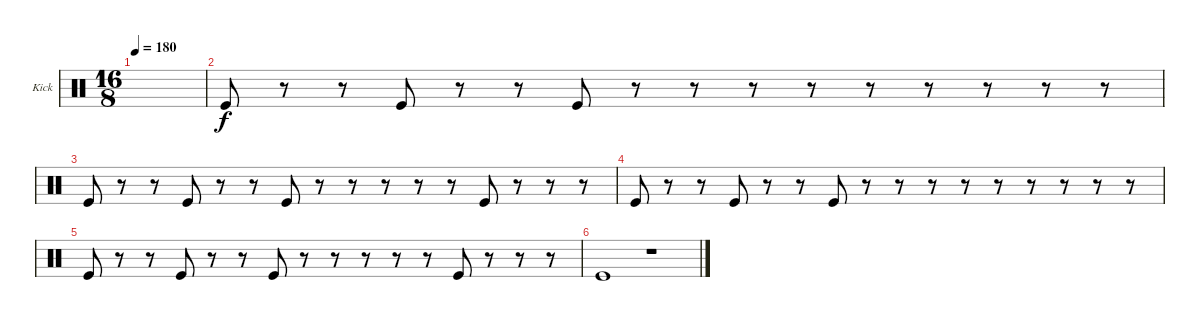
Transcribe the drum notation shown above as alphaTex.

\defaultSystemsLayout 4
\bracketExtendMode groupsimilarinstruments
\firstSystemTrackNameOrientation horizontal
\otherSystemsTrackNameOrientation horizontal
\track ("Kick" "Kick") {instrument percussion}
\staff {score}
\articulation defaults
\ts (16 8)
\tempo 180
\clef neutral
\ks c
|
"Kick (hit)".8 r.8 r.8 "Kick (hit)".8 r.8 r.8 "Kick (hit)".8 r.8 r.8 r.8 r.8 r.8 r.8 r.8 r.8 r.8 |
"Kick (hit)".8 r.8 r.8 "Kick (hit)".8 r.8 r.8 "Kick (hit)".8 r.8 r.8 r.8 r.8 r.8 "Kick (hit)".8 r.8 r.8 r.8 |
"Kick (hit)".8 r.8 r.8 "Kick (hit)".8 r.8 r.8 "Kick (hit)".8 r.8 r.8 r.8 r.8 r.8 r.8 r.8 r.8 r.8 |
"Kick (hit)".8 r.8 r.8 "Kick (hit)".8 r.8 r.8 "Kick (hit)".8 r.8 r.8 r.8 r.8 r.8 "Kick (hit)".8 r.8 r.8 r.8 |
"Kick (hit)".1 r.1
